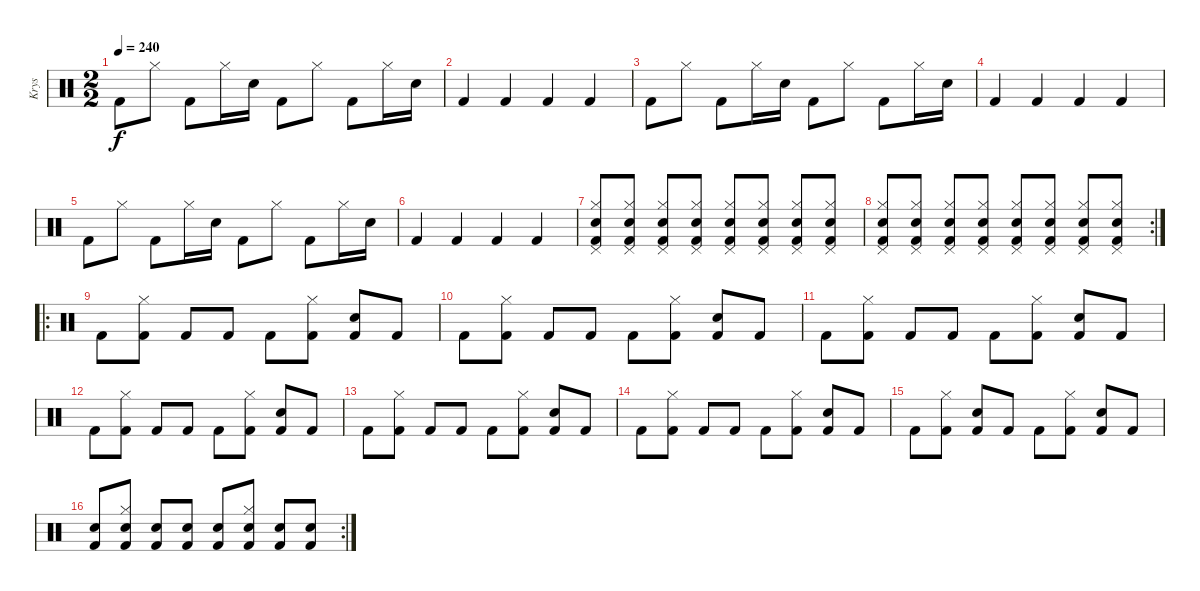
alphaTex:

\track ("Krys" "Krys") {instrument percussion}
\staff {score}
\articulation defaults
\ts (2 2)
\tempo 240
\clef neutral
\ks c "Kick (hit) 2".8{dy f} "Hi-Hat (closed)".8 "Kick (hit) 2".8 "Hi-Hat (closed)".16 "Snare (hit) 2".16 "Kick (hit) 2".8 "Hi-Hat (closed)".8 "Kick (hit) 2".8 "Hi-Hat (closed)".16 "Snare (hit) 2".16
|
"Kick (hit) 2".4 "Kick (hit) 2".4 "Kick (hit) 2".4 "Kick (hit) 2".4 |
"Kick (hit) 2".8 "Hi-Hat (closed)".8 "Kick (hit) 2".8 "Hi-Hat (closed)".16 "Snare (hit) 2".16 "Kick (hit) 2".8 "Hi-Hat (closed)".8 "Kick (hit) 2".8 "Hi-Hat (closed)".16 "Snare (hit) 2".16 |
"Kick (hit) 2".4 "Kick (hit) 2".4 "Kick (hit) 2".4 "Kick (hit) 2".4 |
"Kick (hit) 2".8 "Hi-Hat (closed)".8 "Kick (hit) 2".8 "Hi-Hat (closed)".16 "Snare (hit) 2".16 "Kick (hit) 2".8 "Hi-Hat (closed)".8 "Kick (hit) 2".8 "Hi-Hat (closed)".16 "Snare (hit) 2".16 |
"Kick (hit) 2".4 "Kick (hit) 2".4 "Kick (hit) 2".4 "Kick (hit) 2".4 |
("Hi-Hat (closed)" "Snare (hit) 2" "Pedal Hi-Hat (hit)" "Kick (hit) 2").8 ("Hi-Hat (closed)" "Snare (hit) 2" "Pedal Hi-Hat (hit)" "Kick (hit) 2").8 ("Hi-Hat (closed)" "Snare (hit) 2" "Pedal Hi-Hat (hit)" "Kick (hit) 2").8 ("Hi-Hat (closed)" "Snare (hit) 2" "Pedal Hi-Hat (hit)" "Kick (hit) 2").8 ("Hi-Hat (closed)" "Snare (hit) 2" "Pedal Hi-Hat (hit)" "Kick (hit) 2").8 ("Hi-Hat (closed)" "Snare (hit) 2" "Pedal Hi-Hat (hit)" "Kick (hit) 2").8 ("Hi-Hat (closed)" "Snare (hit) 2" "Pedal Hi-Hat (hit)" "Kick (hit) 2").8 ("Hi-Hat (closed)" "Snare (hit) 2" "Pedal Hi-Hat (hit)" "Kick (hit) 2").8 |
\rc 2
("Hi-Hat (closed)" "Snare (hit) 2" "Kick (hit) 2" "Pedal Hi-Hat (hit)").8 ("Hi-Hat (closed)" "Snare (hit) 2" "Kick (hit) 2" "Pedal Hi-Hat (hit)").8 ("Hi-Hat (closed)" "Snare (hit) 2" "Kick (hit) 2" "Pedal Hi-Hat (hit)").8 ("Hi-Hat (closed)" "Snare (hit) 2" "Kick (hit) 2" "Pedal Hi-Hat (hit)").8 ("Hi-Hat (closed)" "Snare (hit) 2" "Kick (hit) 2" "Pedal Hi-Hat (hit)").8 ("Hi-Hat (closed)" "Snare (hit) 2" "Kick (hit) 2" "Pedal Hi-Hat (hit)").8 ("Hi-Hat (closed)" "Snare (hit) 2" "Kick (hit) 2" "Pedal Hi-Hat (hit)").8 ("Hi-Hat (closed)" "Snare (hit) 2" "Kick (hit) 2" "Pedal Hi-Hat (hit)").8 |
\ro "Kick (hit) 2".8
("Hi-Hat (closed)" "Kick (hit) 2").8 "Kick (hit) 2".8 "Kick (hit) 2".8 "Kick (hit) 2".8 ("Hi-Hat (closed)" "Kick (hit) 2").8 ("Snare (hit) 2" "Kick (hit) 2").8 "Kick (hit) 2".8 |
"Kick (hit) 2".8 ("Hi-Hat (closed)" "Kick (hit) 2").8 "Kick (hit) 2".8 "Kick (hit) 2".8 "Kick (hit) 2".8 ("Hi-Hat (closed)" "Kick (hit) 2").8 ("Snare (hit) 2" "Kick (hit) 2").8 "Kick (hit) 2".8 |
"Kick (hit) 2".8 ("Hi-Hat (closed)" "Kick (hit) 2").8 "Kick (hit) 2".8 "Kick (hit) 2".8 "Kick (hit) 2".8 ("Hi-Hat (closed)" "Kick (hit) 2").8 ("Snare (hit) 2" "Kick (hit) 2").8 "Kick (hit) 2".8 |
"Kick (hit) 2".8 ("Hi-Hat (closed)" "Kick (hit) 2").8 "Kick (hit) 2".8 "Kick (hit) 2".8 "Kick (hit) 2".8 ("Hi-Hat (closed)" "Kick (hit) 2").8 ("Snare (hit) 2" "Kick (hit) 2").8 "Kick (hit) 2".8 |
"Kick (hit) 2".8 ("Hi-Hat (closed)" "Kick (hit) 2").8 "Kick (hit) 2".8 "Kick (hit) 2".8 "Kick (hit) 2".8 ("Hi-Hat (closed)" "Kick (hit) 2").8 ("Snare (hit) 2" "Kick (hit) 2").8 "Kick (hit) 2".8 |
"Kick (hit) 2".8 ("Hi-Hat (closed)" "Kick (hit) 2").8 "Kick (hit) 2".8 "Kick (hit) 2".8 "Kick (hit) 2".8 ("Hi-Hat (closed)" "Kick (hit) 2").8 ("Snare (hit) 2" "Kick (hit) 2").8 "Kick (hit) 2".8 |
"Kick (hit) 2".8 ("Hi-Hat (closed)" "Kick (hit) 2").8 ("Snare (hit) 2" "Kick (hit) 2").8 "Kick (hit) 2".8 "Kick (hit) 2".8 ("Hi-Hat (closed)" "Kick (hit) 2").8 ("Snare (hit) 2" "Kick (hit) 2").8 "Kick (hit) 2".8 |
\rc 2
("Snare (hit) 2" "Kick (hit) 2").8 ("Snare (hit) 2" "Hi-Hat (closed)" "Kick (hit) 2").8 ("Snare (hit) 2" "Kick (hit) 2").8 ("Snare (hit) 2" "Kick (hit) 2").8 ("Snare (hit) 2" "Kick (hit) 2").8 ("Snare (hit) 2" "Hi-Hat (closed)" "Kick (hit) 2").8 ("Snare (hit) 2" "Kick (hit) 2").8 ("Snare (hit) 2" "Kick (hit) 2").8
